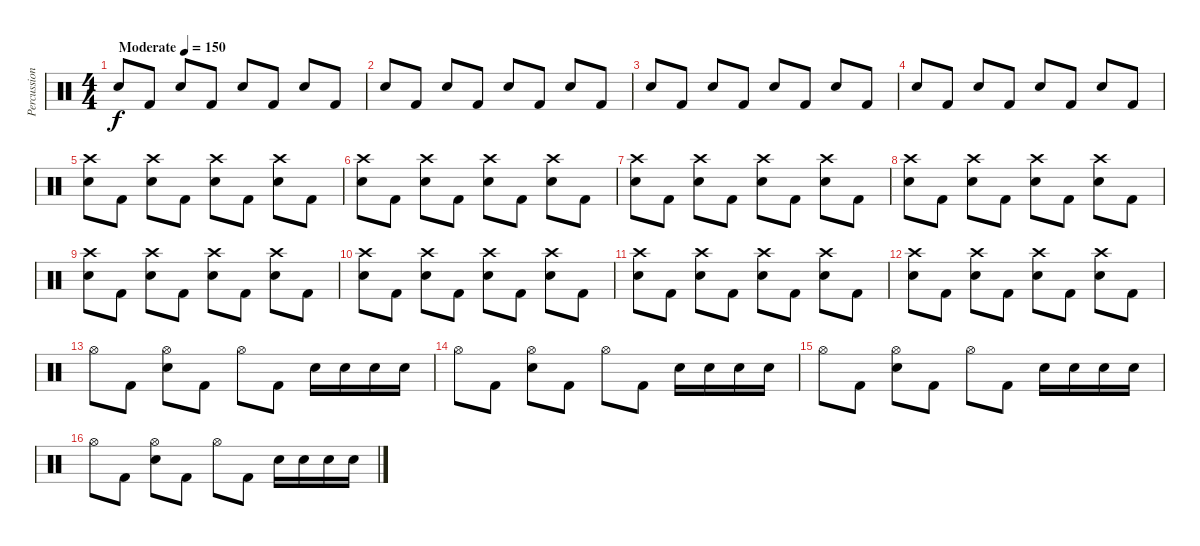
\track ("Percussion" "Percussion") {instrument percussion}
\staff {score}
\articulation defaults
\ts (4 4)
\tempo (150 "Moderate")
\clef neutral
\ks c "Electric Snare (hit)".8{dy f} "Kick (hit) 2".8 "Electric Snare (hit)".8 "Kick (hit) 2".8 "Electric Snare (hit)".8 "Kick (hit) 2".8 "Electric Snare (hit)".8 "Kick (hit) 2".8
|
"Electric Snare (hit)".8 "Kick (hit) 2".8 "Electric Snare (hit)".8 "Kick (hit) 2".8 "Electric Snare (hit)".8 "Kick (hit) 2".8 "Electric Snare (hit)".8 "Kick (hit) 2".8 |
"Electric Snare (hit)".8 "Kick (hit) 2".8 "Electric Snare (hit)".8 "Kick (hit) 2".8 "Electric Snare (hit)".8 "Kick (hit) 2".8 "Electric Snare (hit)".8 "Kick (hit) 2".8 |
"Electric Snare (hit)".8 "Kick (hit) 2".8 "Electric Snare (hit)".8 "Kick (hit) 2".8 "Electric Snare (hit)".8 "Kick (hit) 2".8 "Electric Snare (hit)".8 "Kick (hit) 2".8 |
("Crash high (hit)" "Electric Snare (hit)").8 "Kick (hit) 2".8 ("Crash high (hit)" "Electric Snare (hit)").8 "Kick (hit) 2".8 ("Crash high (hit)" "Electric Snare (hit)").8 "Kick (hit) 2".8 ("Crash high (hit)" "Electric Snare (hit)").8 "Kick (hit) 2".8 |
("Crash high (hit)" "Electric Snare (hit)").8 "Kick (hit) 2".8 ("Crash high (hit)" "Electric Snare (hit)").8 "Kick (hit) 2".8 ("Crash high (hit)" "Electric Snare (hit)").8 "Kick (hit) 2".8 ("Crash high (hit)" "Electric Snare (hit)").8 "Kick (hit) 2".8 |
("Crash high (hit)" "Electric Snare (hit)").8 "Kick (hit) 2".8 ("Crash high (hit)" "Electric Snare (hit)").8 "Kick (hit) 2".8 ("Crash high (hit)" "Electric Snare (hit)").8 "Kick (hit) 2".8 ("Crash high (hit)" "Electric Snare (hit)").8 "Kick (hit) 2".8 |
("Crash high (hit)" "Electric Snare (hit)").8 "Kick (hit) 2".8 ("Crash high (hit)" "Electric Snare (hit)").8 "Kick (hit) 2".8 ("Crash high (hit)" "Electric Snare (hit)").8 "Kick (hit) 2".8 ("Crash high (hit)" "Electric Snare (hit)").8 "Kick (hit) 2".8 |
("Crash high (hit)" "Electric Snare (hit)").8 "Kick (hit) 2".8 ("Crash high (hit)" "Electric Snare (hit)").8 "Kick (hit) 2".8 ("Crash high (hit)" "Electric Snare (hit)").8 "Kick (hit) 2".8 ("Crash high (hit)" "Electric Snare (hit)").8 "Kick (hit) 2".8 |
("Crash high (hit)" "Electric Snare (hit)").8 "Kick (hit) 2".8 ("Crash high (hit)" "Electric Snare (hit)").8 "Kick (hit) 2".8 ("Crash high (hit)" "Electric Snare (hit)").8 "Kick (hit) 2".8 ("Crash high (hit)" "Electric Snare (hit)").8 "Kick (hit) 2".8 |
("Crash high (hit)" "Electric Snare (hit)").8 "Kick (hit) 2".8 ("Crash high (hit)" "Electric Snare (hit)").8 "Kick (hit) 2".8 ("Crash high (hit)" "Electric Snare (hit)").8 "Kick (hit) 2".8 ("Crash high (hit)" "Electric Snare (hit)").8 "Kick (hit) 2".8 |
("Crash high (hit)" "Electric Snare (hit)").8 "Kick (hit) 2".8 ("Crash high (hit)" "Electric Snare (hit)").8 "Kick (hit) 2".8 ("Crash high (hit)" "Electric Snare (hit)").8 "Kick (hit) 2".8 ("Crash high (hit)" "Electric Snare (hit)").8 "Kick (hit) 2".8 |
"Hi-Hat (open)".8 "Kick (hit) 2".8 ("Hi-Hat (open)" "Electric Snare (hit)").8 "Kick (hit) 2".8 "Hi-Hat (open)".8 "Kick (hit) 2".8 "Electric Snare (hit)".16 "Electric Snare (hit)".16 "Electric Snare (hit)".16 "Electric Snare (hit)".16 |
"Hi-Hat (open)".8 "Kick (hit) 2".8 ("Hi-Hat (open)" "Electric Snare (hit)").8 "Kick (hit) 2".8 "Hi-Hat (open)".8 "Kick (hit) 2".8 "Electric Snare (hit)".16 "Electric Snare (hit)".16 "Electric Snare (hit)".16 "Electric Snare (hit)".16 |
"Hi-Hat (open)".8 "Kick (hit) 2".8 ("Hi-Hat (open)" "Electric Snare (hit)").8 "Kick (hit) 2".8 "Hi-Hat (open)".8 "Kick (hit) 2".8 "Electric Snare (hit)".16 "Electric Snare (hit)".16 "Electric Snare (hit)".16 "Electric Snare (hit)".16 |
"Hi-Hat (open)".8 "Kick (hit) 2".8 ("Hi-Hat (open)" "Electric Snare (hit)").8 "Kick (hit) 2".8 "Hi-Hat (open)".8 "Kick (hit) 2".8 "Electric Snare (hit)".16 "Electric Snare (hit)".16 "Electric Snare (hit)".16 "Electric Snare (hit)".16
